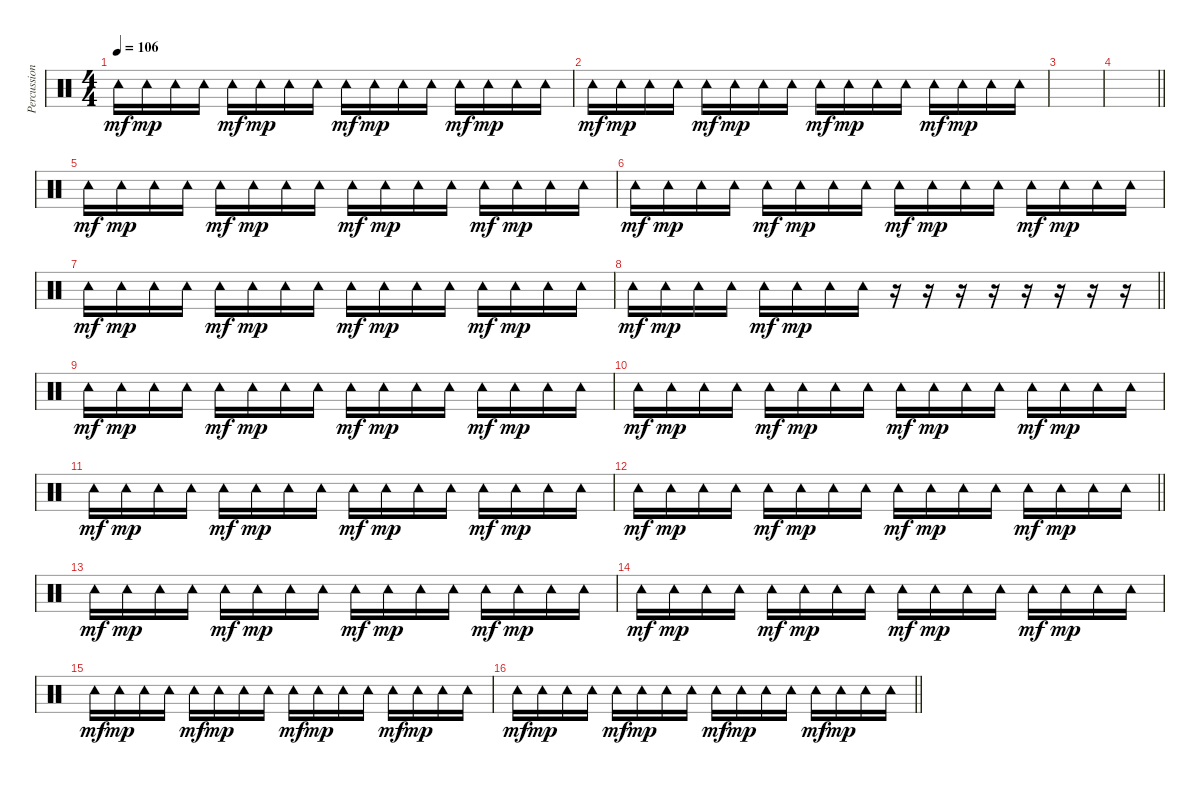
\track ("Percussion" "Percussion") {instrument percussion}
\staff {score}
\articulation defaults
\ts (4 4)
\tempo 106
\clef neutral
\ks c "Tambourine (hit)".16{dy mf} "Tambourine (hit)".16{dy mp} "Tambourine (hit)".16 "Tambourine (hit)".16 "Tambourine (hit)".16{dy mf} "Tambourine (hit)".16{dy mp} "Tambourine (hit)".16 "Tambourine (hit)".16 "Tambourine (hit)".16{dy mf} "Tambourine (hit)".16{dy mp} "Tambourine (hit)".16 "Tambourine (hit)".16 "Tambourine (hit)".16{dy mf} "Tambourine (hit)".16{dy mp} "Tambourine (hit)".16 "Tambourine (hit)".16
|
"Tambourine (hit)".16{dy mf} "Tambourine (hit)".16{dy mp} "Tambourine (hit)".16 "Tambourine (hit)".16 "Tambourine (hit)".16{dy mf} "Tambourine (hit)".16{dy mp} "Tambourine (hit)".16 "Tambourine (hit)".16 "Tambourine (hit)".16{dy mf} "Tambourine (hit)".16{dy mp} "Tambourine (hit)".16 "Tambourine (hit)".16 "Tambourine (hit)".16{dy mf} "Tambourine (hit)".16{dy mp} "Tambourine (hit)".16 "Tambourine (hit)".16 |
|
\barLineRight lightlight
|
"Tambourine (hit)".16{dy mf} "Tambourine (hit)".16{dy mp} "Tambourine (hit)".16 "Tambourine (hit)".16 "Tambourine (hit)".16{dy mf} "Tambourine (hit)".16{dy mp} "Tambourine (hit)".16 "Tambourine (hit)".16 "Tambourine (hit)".16{dy mf} "Tambourine (hit)".16{dy mp} "Tambourine (hit)".16 "Tambourine (hit)".16 "Tambourine (hit)".16{dy mf} "Tambourine (hit)".16{dy mp} "Tambourine (hit)".16 "Tambourine (hit)".16 |
"Tambourine (hit)".16{dy mf} "Tambourine (hit)".16{dy mp} "Tambourine (hit)".16 "Tambourine (hit)".16 "Tambourine (hit)".16{dy mf} "Tambourine (hit)".16{dy mp} "Tambourine (hit)".16 "Tambourine (hit)".16 "Tambourine (hit)".16{dy mf} "Tambourine (hit)".16{dy mp} "Tambourine (hit)".16 "Tambourine (hit)".16 "Tambourine (hit)".16{dy mf} "Tambourine (hit)".16{dy mp} "Tambourine (hit)".16 "Tambourine (hit)".16 |
"Tambourine (hit)".16{dy mf} "Tambourine (hit)".16{dy mp} "Tambourine (hit)".16 "Tambourine (hit)".16 "Tambourine (hit)".16{dy mf} "Tambourine (hit)".16{dy mp} "Tambourine (hit)".16 "Tambourine (hit)".16 "Tambourine (hit)".16{dy mf} "Tambourine (hit)".16{dy mp} "Tambourine (hit)".16 "Tambourine (hit)".16 "Tambourine (hit)".16{dy mf} "Tambourine (hit)".16{dy mp} "Tambourine (hit)".16 "Tambourine (hit)".16 |
\barLineRight lightlight "Tambourine (hit)".16{dy mf} "Tambourine (hit)".16{dy mp} "Tambourine (hit)".16 "Tambourine (hit)".16 "Tambourine (hit)".16{dy mf} "Tambourine (hit)".16{dy mp} "Tambourine (hit)".16 "Tambourine (hit)".16
r.16 r.16 r.16 r.16 r.16 r.16 r.16 r.16 |
"Tambourine (hit)".16{dy mf} "Tambourine (hit)".16{dy mp} "Tambourine (hit)".16 "Tambourine (hit)".16 "Tambourine (hit)".16{dy mf} "Tambourine (hit)".16{dy mp} "Tambourine (hit)".16 "Tambourine (hit)".16 "Tambourine (hit)".16{dy mf} "Tambourine (hit)".16{dy mp} "Tambourine (hit)".16 "Tambourine (hit)".16 "Tambourine (hit)".16{dy mf} "Tambourine (hit)".16{dy mp} "Tambourine (hit)".16 "Tambourine (hit)".16 |
"Tambourine (hit)".16{dy mf} "Tambourine (hit)".16{dy mp} "Tambourine (hit)".16 "Tambourine (hit)".16 "Tambourine (hit)".16{dy mf} "Tambourine (hit)".16{dy mp} "Tambourine (hit)".16 "Tambourine (hit)".16 "Tambourine (hit)".16{dy mf} "Tambourine (hit)".16{dy mp} "Tambourine (hit)".16 "Tambourine (hit)".16 "Tambourine (hit)".16{dy mf} "Tambourine (hit)".16{dy mp} "Tambourine (hit)".16 "Tambourine (hit)".16 |
"Tambourine (hit)".16{dy mf} "Tambourine (hit)".16{dy mp} "Tambourine (hit)".16 "Tambourine (hit)".16 "Tambourine (hit)".16{dy mf} "Tambourine (hit)".16{dy mp} "Tambourine (hit)".16 "Tambourine (hit)".16 "Tambourine (hit)".16{dy mf} "Tambourine (hit)".16{dy mp} "Tambourine (hit)".16 "Tambourine (hit)".16 "Tambourine (hit)".16{dy mf} "Tambourine (hit)".16{dy mp} "Tambourine (hit)".16 "Tambourine (hit)".16 |
\barLineRight lightlight "Tambourine (hit)".16{dy mf} "Tambourine (hit)".16{dy mp} "Tambourine (hit)".16 "Tambourine (hit)".16 "Tambourine (hit)".16{dy mf} "Tambourine (hit)".16{dy mp} "Tambourine (hit)".16 "Tambourine (hit)".16 "Tambourine (hit)".16{dy mf} "Tambourine (hit)".16{dy mp} "Tambourine (hit)".16 "Tambourine (hit)".16 "Tambourine (hit)".16{dy mf} "Tambourine (hit)".16{dy mp} "Tambourine (hit)".16 "Tambourine (hit)".16
|
"Tambourine (hit)".16{dy mf} "Tambourine (hit)".16{dy mp} "Tambourine (hit)".16 "Tambourine (hit)".16 "Tambourine (hit)".16{dy mf} "Tambourine (hit)".16{dy mp} "Tambourine (hit)".16 "Tambourine (hit)".16 "Tambourine (hit)".16{dy mf} "Tambourine (hit)".16{dy mp} "Tambourine (hit)".16 "Tambourine (hit)".16 "Tambourine (hit)".16{dy mf} "Tambourine (hit)".16{dy mp} "Tambourine (hit)".16 "Tambourine (hit)".16 |
"Tambourine (hit)".16{dy mf} "Tambourine (hit)".16{dy mp} "Tambourine (hit)".16 "Tambourine (hit)".16 "Tambourine (hit)".16{dy mf} "Tambourine (hit)".16{dy mp} "Tambourine (hit)".16 "Tambourine (hit)".16 "Tambourine (hit)".16{dy mf} "Tambourine (hit)".16{dy mp} "Tambourine (hit)".16 "Tambourine (hit)".16 "Tambourine (hit)".16{dy mf} "Tambourine (hit)".16{dy mp} "Tambourine (hit)".16 "Tambourine (hit)".16 |
"Tambourine (hit)".16{dy mf} "Tambourine (hit)".16{dy mp} "Tambourine (hit)".16 "Tambourine (hit)".16 "Tambourine (hit)".16{dy mf} "Tambourine (hit)".16{dy mp} "Tambourine (hit)".16 "Tambourine (hit)".16 "Tambourine (hit)".16{dy mf} "Tambourine (hit)".16{dy mp} "Tambourine (hit)".16 "Tambourine (hit)".16 "Tambourine (hit)".16{dy mf} "Tambourine (hit)".16{dy mp} "Tambourine (hit)".16 "Tambourine (hit)".16 |
\barLineRight lightlight "Tambourine (hit)".16{dy mf} "Tambourine (hit)".16{dy mp} "Tambourine (hit)".16 "Tambourine (hit)".16 "Tambourine (hit)".16{dy mf} "Tambourine (hit)".16{dy mp} "Tambourine (hit)".16 "Tambourine (hit)".16 "Tambourine (hit)".16{dy mf} "Tambourine (hit)".16{dy mp} "Tambourine (hit)".16 "Tambourine (hit)".16 "Tambourine (hit)".16{dy mf} "Tambourine (hit)".16{dy mp} "Tambourine (hit)".16 "Tambourine (hit)".16
